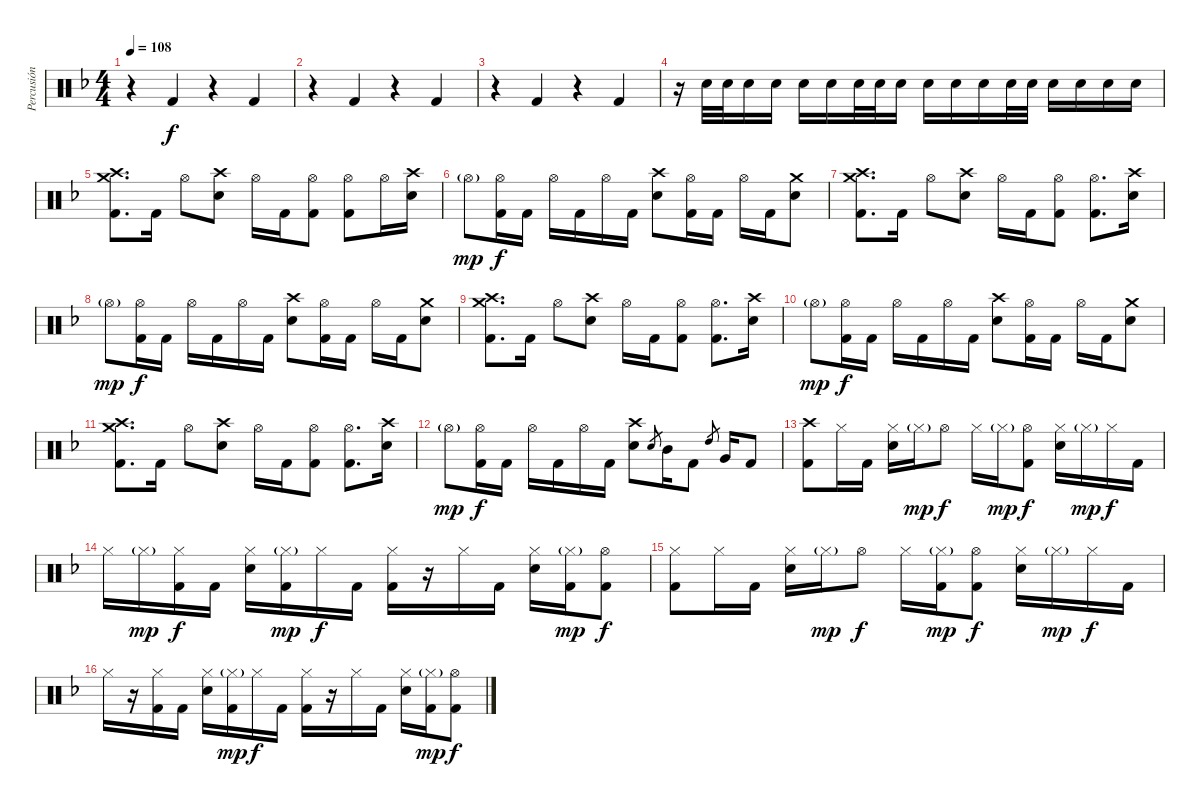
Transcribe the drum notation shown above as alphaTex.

\track ("Percusión" "Percusión") {instrument percussion}
\staff {score}
\articulation defaults
\ts (4 4)
\tempo 108
\clef neutral
\ks f
r.4{dy f} "Kick (hit) 2".4 r.4 "Kick (hit) 2".4 |
r.4 "Kick (hit) 2".4 r.4 "Kick (hit) 2".4 |
r.4 "Kick (hit) 2".4 r.4 "Kick (hit) 2".4 |
r.16 "Snare (hit) 2".32 "Snare (hit) 2".32 "Snare (hit) 2".16 "Snare (hit) 2".16 "Snare (hit) 2".16 "Snare (hit) 2".16 "Snare (hit) 2".32 "Snare (hit) 2".32 "Snare (hit) 2".16 "Snare (hit) 2".16 "Snare (hit) 2".16 "Snare (hit) 2".16 "Snare (hit) 2".32 "Snare (hit) 2".32 "Snare (hit) 2".16 "Snare (hit) 2".16 "Snare (hit) 2".16 "Snare (hit) 2".16 |
("Crash medium (hit)" "Crash high (hit)" "Kick (hit) 2").8{d} "Kick (hit) 2".16 "Hi-Hat (open)".8 ("Crash high (hit)" "Snare (hit) 2").8 "Hi-Hat (open)".16 "Kick (hit) 2".16 ("Hi-Hat (open)" "Kick (hit) 2").8 ("Hi-Hat (open)" "Kick (hit) 2").8 "Hi-Hat (open)".16 ("Crash high (hit)" "Snare (hit) 2").16 |
"Hi-Hat (open)"{g}.8{dy mp} ("Hi-Hat (open)" "Kick (hit) 2").16{dy f} "Kick (hit) 2".16 "Hi-Hat (open)".16 "Kick (hit) 2".16 "Hi-Hat (open)".16 "Kick (hit) 2".16 ("Crash high (hit)" "Snare (hit) 2").8 ("Hi-Hat (open)" "Kick (hit) 2").16 "Kick (hit) 2".16 "Hi-Hat (open)".16 "Kick (hit) 2".16 ("Crash medium (hit)" "Snare (hit) 2").8 |
("Crash medium (hit)" "Crash high (hit)" "Kick (hit) 2").8{d} "Kick (hit) 2".16 "Hi-Hat (open)".8 ("Crash high (hit)" "Snare (hit) 2").8 "Hi-Hat (open)".16 "Kick (hit) 2".16 ("Hi-Hat (open)" "Kick (hit) 2").8 ("Hi-Hat (open)" "Kick (hit) 2").8{d} ("Crash high (hit)" "Snare (hit) 2").16 |
"Hi-Hat (open)"{g}.8{dy mp} ("Hi-Hat (open)" "Kick (hit) 2").16{dy f} "Kick (hit) 2".16 "Hi-Hat (open)".16 "Kick (hit) 2".16 "Hi-Hat (open)".16 "Kick (hit) 2".16 ("Crash high (hit)" "Snare (hit) 2").8 ("Hi-Hat (open)" "Kick (hit) 2").16 "Kick (hit) 2".16 "Hi-Hat (open)".16 "Kick (hit) 2".16 ("Crash medium (hit)" "Snare (hit) 2").8 |
("Crash medium (hit)" "Crash high (hit)" "Kick (hit) 2").8{d} "Kick (hit) 2".16 "Hi-Hat (open)".8 ("Crash high (hit)" "Snare (hit) 2").8 "Hi-Hat (open)".16 "Kick (hit) 2".16 ("Hi-Hat (open)" "Kick (hit) 2").8 ("Hi-Hat (open)" "Kick (hit) 2").8{d} ("Crash high (hit)" "Snare (hit) 2").16 |
"Hi-Hat (open)"{g}.8{dy mp} ("Hi-Hat (open)" "Kick (hit) 2").16{dy f} "Kick (hit) 2".16 "Hi-Hat (open)".16 "Kick (hit) 2".16 "Hi-Hat (open)".16 "Kick (hit) 2".16 ("Crash high (hit)" "Snare (hit) 2").8 ("Hi-Hat (open)" "Kick (hit) 2").16 "Kick (hit) 2".16 "Hi-Hat (open)".16 "Kick (hit) 2".16 ("Crash medium (hit)" "Snare (hit) 2").8 |
("Crash medium (hit)" "Crash high (hit)" "Kick (hit) 2").8{d} "Kick (hit) 2".16 "Hi-Hat (open)".8 ("Crash high (hit)" "Snare (hit) 2").8 "Hi-Hat (open)".16 "Kick (hit) 2".16 ("Hi-Hat (open)" "Kick (hit) 2").8 ("Hi-Hat (open)" "Kick (hit) 2").8{d} ("Crash high (hit)" "Snare (hit) 2").16 |
"Hi-Hat (open)"{g}.8{dy mp} ("Hi-Hat (open)" "Kick (hit) 2").16{dy f} "Kick (hit) 2".16 "Hi-Hat (open)".16 "Kick (hit) 2".16 "Hi-Hat (open)".16 "Kick (hit) 2".16 ("Crash high (hit)" "Snare (hit) 2").8 "Snare (hit) 2".8{gr} "Mid Tom (hit)".16 "Kick (hit) 2".8 "High Tom (hit)".8{gr} "Very Low Tom (hit)".16 "Kick (hit) 2".8 |
("Crash high (hit)" "Kick (hit) 2").8 "Hi-Hat (closed)".16 "Kick (hit) 2".16 ("Hi-Hat (closed)" "Snare (hit) 2").16 "Hi-Hat (closed)"{g}.16{dy mp} "Hi-Hat (open)".8{dy f} "Hi-Hat (closed)".16 "Hi-Hat (closed)"{g}.16{dy mp} ("Hi-Hat (open)" "Kick (hit) 2").8{dy f} ("Hi-Hat (closed)" "Snare (hit) 2").16 "Hi-Hat (closed)"{g}.16{dy mp} "Hi-Hat (closed)".16{dy f} "Kick (hit) 2".16 |
"Hi-Hat (closed)".16 "Hi-Hat (closed)"{g}.16{dy mp} ("Hi-Hat (closed)" "Kick (hit) 2").16{dy f} "Kick (hit) 2".16 ("Hi-Hat (closed)" "Snare (hit) 2").16 ("Hi-Hat (closed)"{g} "Kick (hit) 2").16{dy mp} "Hi-Hat (closed)".16{dy f} "Kick (hit) 2".16 ("Hi-Hat (closed)" "Kick (hit) 2").16 r.16 "Hi-Hat (closed)".16 "Kick (hit) 2".16 ("Hi-Hat (closed)" "Snare (hit) 2").16 ("Hi-Hat (closed)"{g} "Kick (hit) 2").16{dy mp} ("Hi-Hat (open)" "Kick (hit) 2").8{dy f} |
("Hi-Hat (closed)" "Kick (hit) 2").8 "Hi-Hat (closed)".16 "Kick (hit) 2".16 ("Hi-Hat (closed)" "Snare (hit) 2").16 "Hi-Hat (closed)"{g}.16{dy mp} "Hi-Hat (open)".8{dy f} "Hi-Hat (closed)".16 ("Hi-Hat (closed)"{g} "Kick (hit) 2").16{dy mp} ("Hi-Hat (open)" "Kick (hit) 2").8{dy f} ("Hi-Hat (closed)" "Snare (hit) 2").16 "Hi-Hat (closed)"{g}.16{dy mp} "Hi-Hat (closed)".16{dy f} "Kick (hit) 2".16 |
"Hi-Hat (closed)".16 r.16 ("Hi-Hat (closed)" "Kick (hit) 2").16 "Kick (hit) 2".16 ("Hi-Hat (closed)" "Snare (hit) 2").16 ("Hi-Hat (closed)"{g} "Kick (hit) 2").16{dy mp} "Hi-Hat (closed)".16{dy f} "Kick (hit) 2".16 ("Hi-Hat (closed)" "Kick (hit) 2").16 r.16 "Hi-Hat (closed)".16 "Kick (hit) 2".16 ("Hi-Hat (closed)" "Snare (hit) 2").16 ("Hi-Hat (closed)"{g} "Kick (hit) 2").16{dy mp} ("Hi-Hat (open)" "Kick (hit) 2").8{dy f}
